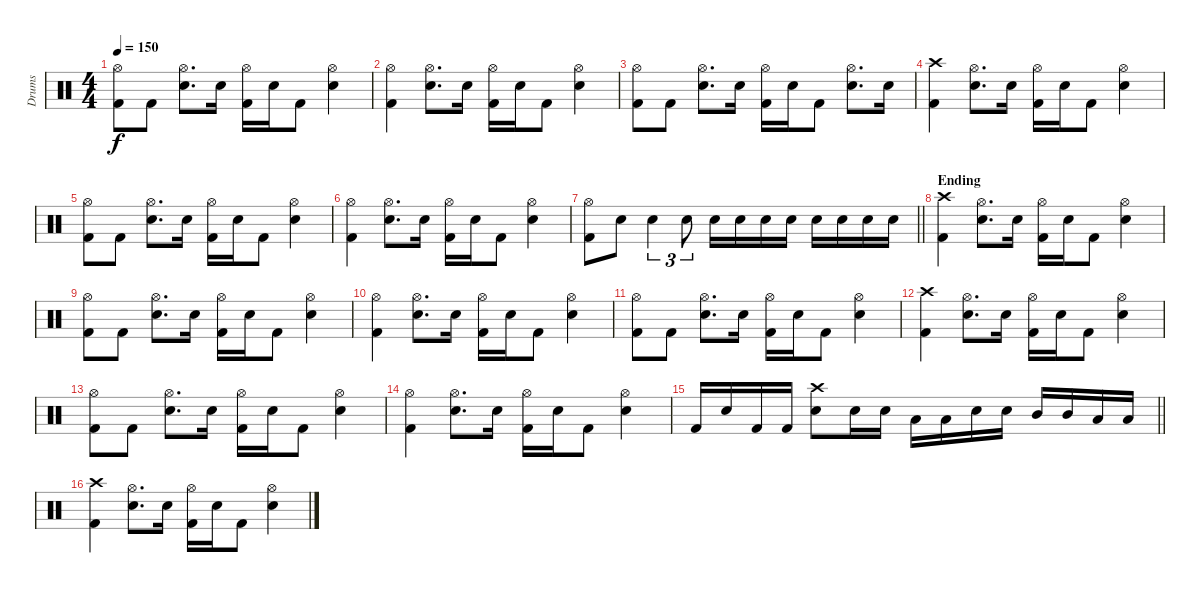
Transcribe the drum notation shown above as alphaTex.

\track ("Drums" "Drums") {instrument percussion}
\staff {score}
\articulation defaults
\ts (4 4)
\tempo 150
\clef neutral
\ks c
("Hi-Hat (open)" "Kick (hit) 2").8{dy f} "Kick (hit) 2".8 ("Hi-Hat (open)" "Snare (hit) 2").8{d} "Snare (hit) 2".16 ("Hi-Hat (open)" "Kick (hit) 2").16 "Snare (hit) 2".16 "Kick (hit) 2".8 ("Hi-Hat (open)" "Snare (hit) 2").4 |
("Hi-Hat (open)" "Kick (hit) 2").4 ("Hi-Hat (open)" "Snare (hit) 2").8{d} "Snare (hit) 2".16 ("Hi-Hat (open)" "Kick (hit) 2").16 "Snare (hit) 2".16 "Kick (hit) 2".8 ("Hi-Hat (open)" "Snare (hit) 2").4 |
("Hi-Hat (open)" "Kick (hit) 2").8 "Kick (hit) 2".8 ("Hi-Hat (open)" "Snare (hit) 2").8{d} "Snare (hit) 2".16 ("Hi-Hat (open)" "Kick (hit) 2").16 "Snare (hit) 2".16 "Kick (hit) 2".8 ("Hi-Hat (open)" "Snare (hit) 2").8{d} "Snare (hit) 2".16 |
("Crash high (hit)" "Kick (hit) 2").4 ("Hi-Hat (open)" "Snare (hit) 2").8{d} "Snare (hit) 2".16 ("Hi-Hat (open)" "Kick (hit) 2").16 "Snare (hit) 2".16 "Kick (hit) 2".8 ("Hi-Hat (open)" "Snare (hit) 2").4 |
("Hi-Hat (open)" "Kick (hit) 2").8 "Kick (hit) 2".8 ("Hi-Hat (open)" "Snare (hit) 2").8{d} "Snare (hit) 2".16 ("Hi-Hat (open)" "Kick (hit) 2").16 "Snare (hit) 2".16 "Kick (hit) 2".8 ("Hi-Hat (open)" "Snare (hit) 2").4 |
("Hi-Hat (open)" "Kick (hit) 2").4 ("Hi-Hat (open)" "Snare (hit) 2").8{d} "Snare (hit) 2".16 ("Hi-Hat (open)" "Kick (hit) 2").16 "Snare (hit) 2".16 "Kick (hit) 2".8 ("Hi-Hat (open)" "Snare (hit) 2").4 |
\barLineRight lightlight
("Hi-Hat (open)" "Kick (hit) 2").8 "Snare (hit) 2".8 "Snare (hit) 2".4{tu (3 2)} "Snare (hit) 2".8{tu (3 2)} "Snare (hit) 2".16 "Snare (hit) 2".16 "Snare (hit) 2".16 "Snare (hit) 2".16 "Snare (hit) 2".16 "Snare (hit) 2".16 "Snare (hit) 2".16 "Snare (hit) 2".16 |
\section ("" "Ending")
("Crash high (hit)" "Kick (hit) 2").4 ("Hi-Hat (open)" "Snare (hit) 2").8{d} "Snare (hit) 2".16 ("Hi-Hat (open)" "Kick (hit) 2").16 "Snare (hit) 2".16 "Kick (hit) 2".8 ("Hi-Hat (open)" "Snare (hit) 2").4 |
("Hi-Hat (open)" "Kick (hit) 2").8 "Kick (hit) 2".8 ("Hi-Hat (open)" "Snare (hit) 2").8{d} "Snare (hit) 2".16 ("Hi-Hat (open)" "Kick (hit) 2").16 "Snare (hit) 2".16 "Kick (hit) 2".8 ("Hi-Hat (open)" "Snare (hit) 2").4 |
("Hi-Hat (open)" "Kick (hit) 2").4 ("Hi-Hat (open)" "Snare (hit) 2").8{d} "Snare (hit) 2".16 ("Hi-Hat (open)" "Kick (hit) 2").16 "Snare (hit) 2".16 "Kick (hit) 2".8 ("Hi-Hat (open)" "Snare (hit) 2").4 |
("Hi-Hat (open)" "Kick (hit) 2").8 "Kick (hit) 2".8 ("Hi-Hat (open)" "Snare (hit) 2").8{d} "Snare (hit) 2".16 ("Hi-Hat (open)" "Kick (hit) 2").16 "Snare (hit) 2".16 "Kick (hit) 2".8 ("Hi-Hat (open)" "Snare (hit) 2").4 |
("Crash high (hit)" "Kick (hit) 2").4 ("Hi-Hat (open)" "Snare (hit) 2").8{d} "Snare (hit) 2".16 ("Hi-Hat (open)" "Kick (hit) 2").16 "Snare (hit) 2".16 "Kick (hit) 2".8 ("Hi-Hat (open)" "Snare (hit) 2").4 |
("Hi-Hat (open)" "Kick (hit) 2").8 "Kick (hit) 2".8 ("Hi-Hat (open)" "Snare (hit) 2").8{d} "Snare (hit) 2".16 ("Hi-Hat (open)" "Kick (hit) 2").16 "Snare (hit) 2".16 "Kick (hit) 2".8 ("Hi-Hat (open)" "Snare (hit) 2").4 |
("Hi-Hat (open)" "Kick (hit) 2").4 ("Hi-Hat (open)" "Snare (hit) 2").8{d} "Snare (hit) 2".16 ("Hi-Hat (open)" "Kick (hit) 2").16 "Snare (hit) 2".16 "Kick (hit) 2".8 ("Hi-Hat (open)" "Snare (hit) 2").4 |
\barLineRight lightlight "Kick (hit) 2".16 "Snare (hit) 2".16 "Kick (hit) 2".16 "Kick (hit) 2".16
("Crash high (hit)" "Snare (hit) 2").8 "Snare (hit) 2".16 "Snare (hit) 2".16 "Low Tom (hit)".16 "Low Tom (hit)".16 "Snare (hit) 2".16 "Snare (hit) 2".16 "Mid Tom (hit)".16 "Mid Tom (hit)".16 "Low Tom (hit)".16 "Low Tom (hit)".16 |
("Crash high (hit)" "Kick (hit) 2").4 ("Hi-Hat (open)" "Snare (hit) 2").8{d} "Snare (hit) 2".16 ("Hi-Hat (open)" "Kick (hit) 2").16 "Snare (hit) 2".16 "Kick (hit) 2".8 ("Hi-Hat (open)" "Snare (hit) 2").4
